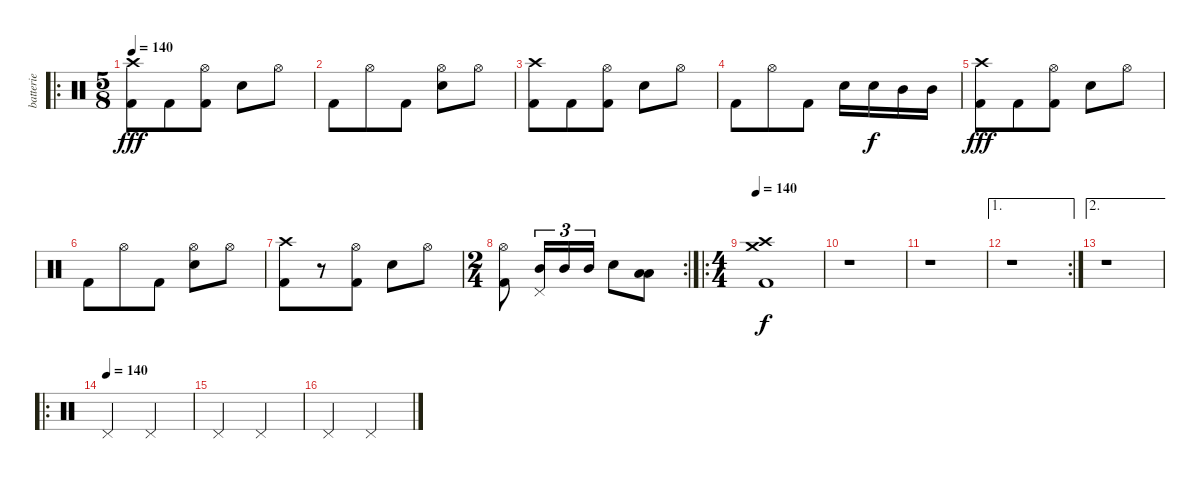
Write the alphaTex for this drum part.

\track ("batterie" "batterie") {instrument percussion}
\staff {score}
\articulation defaults
\ro
\ts (5 8)
\tempo 140
\clef neutral
\ks c
("Crash high (hit)" "Kick (hit) 2").8{dy fff} "Kick (hit) 2".8 ("Hi-Hat (open)" "Kick (hit) 2").8 "Electric Snare (hit)".8 "Hi-Hat (open)".8 |
"Kick (hit) 2".8 "Hi-Hat (open)".8 "Kick (hit) 2".8 ("Hi-Hat (open)" "Electric Snare (hit)").8 "Hi-Hat (open)".8 |
("Crash high (hit)" "Kick (hit) 2").8 "Kick (hit) 2".8 ("Hi-Hat (open)" "Kick (hit) 2").8 "Electric Snare (hit)".8 "Hi-Hat (open)".8 |
"Kick (hit) 2".8 "Hi-Hat (open)".8 "Kick (hit) 2".8 "Electric Snare (hit)".16 "Electric Snare (hit)".16{dy f} "Mid Tom (hit)".16 "Mid Tom (hit)".16 |
("Crash high (hit)" "Kick (hit) 2").8{dy fff} "Kick (hit) 2".8 ("Hi-Hat (open)" "Kick (hit) 2").8 "Electric Snare (hit)".8 "Hi-Hat (open)".8 |
"Kick (hit) 2".8 "Hi-Hat (open)".8 "Kick (hit) 2".8 ("Hi-Hat (open)" "Electric Snare (hit)").8 "Hi-Hat (open)".8 |
("Crash high (hit)" "Kick (hit) 2").8 r.8 ("Hi-Hat (open)" "Kick (hit) 2").8 "Electric Snare (hit)".8 "Hi-Hat (open)".8 |
\rc 2
\ts (2 4)
("Hi-Hat (open)" "Kick (hit) 2").8 ("Mid Tom (hit)" "Pedal Hi-Hat (hit)").16{tu (3 2)} "Mid Tom (hit)".16{tu (3 2)} "Mid Tom (hit)".16{tu (3 2)} "Electric Snare (hit)".8 ("Low Tom (hit)" "Low Floor Tom (hit)").8 |
\ro
\ts (4 4)
\tempo 140
("Crash medium (hit)" "Crash high (hit)" "Kick (hit) 2").1{dy f volume 0} |
r.1 |
r.1 |
\ae 1
\rc 2
r.1 |
\ae 2
r.1 |
\ro
\tempo (140)
"Pedal Hi-Hat (hit)".2{volume 16} "Pedal Hi-Hat (hit)".2 |
"Pedal Hi-Hat (hit)".2 "Pedal Hi-Hat (hit)".2 |
"Pedal Hi-Hat (hit)".2 "Pedal Hi-Hat (hit)".2
